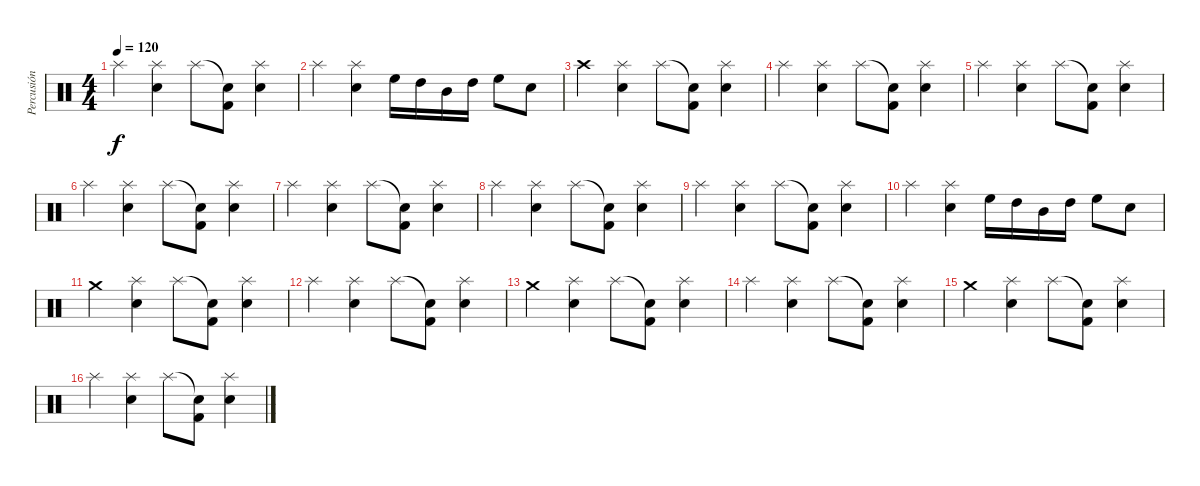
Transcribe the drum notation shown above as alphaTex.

\track ("Percusión" "Percusión") {instrument percussion}
\staff {score}
\articulation defaults
\ts (4 4)
\tempo 120
\clef neutral
\ks c "Splash (hit)".4{dy f}
("Splash (hit)" "Snare (hit) 2").4 "Splash (hit)".8 ("Snare (hit)"{t} "Kick (hit) 2").8 ("Splash (hit)" "Snare (hit) 2").4 |
"Splash (hit)".4 ("Splash (hit)" "Snare (hit) 2").4 "High Floor Tom (hit)".16 "High Tom (hit)".16 "Mid Tom (hit)".16 "High Tom (hit)".16 "High Floor Tom (hit)".8 "Snare (hit) 2".8 |
"Crash high (hit)".4 ("Splash (hit)" "Snare (hit) 2").4 "Splash (hit)".8 ("Snare (hit)"{t} "Kick (hit) 2").8 ("Splash (hit)" "Snare (hit) 2").4 |
"Splash (hit)".4 ("Splash (hit)" "Snare (hit) 2").4 "Splash (hit)".8 ("Snare (hit)"{t} "Kick (hit) 2").8 ("Splash (hit)" "Snare (hit) 2").4 |
"Splash (hit)".4 ("Splash (hit)" "Snare (hit) 2").4 "Splash (hit)".8 ("Snare (hit)"{t} "Kick (hit) 2").8 ("Splash (hit)" "Snare (hit) 2").4 |
"Splash (hit)".4 ("Splash (hit)" "Snare (hit) 2").4 "Splash (hit)".8 ("Snare (hit)"{t} "Kick (hit) 2").8 ("Splash (hit)" "Snare (hit) 2").4 |
"Splash (hit)".4 ("Splash (hit)" "Snare (hit) 2").4 "Splash (hit)".8 ("Snare (hit)"{t} "Kick (hit) 2").8 ("Splash (hit)" "Snare (hit) 2").4 |
"Splash (hit)".4 ("Splash (hit)" "Snare (hit) 2").4 "Splash (hit)".8 ("Snare (hit)"{t} "Kick (hit) 2").8 ("Splash (hit)" "Snare (hit) 2").4 |
"Splash (hit)".4 ("Splash (hit)" "Snare (hit) 2").4 "Splash (hit)".8 ("Snare (hit)"{t} "Kick (hit) 2").8 ("Splash (hit)" "Snare (hit) 2").4 |
"Splash (hit)".4 ("Splash (hit)" "Snare (hit) 2").4 "High Floor Tom (hit)".16 "High Tom (hit)".16 "Mid Tom (hit)".16 "High Tom (hit)".16 "High Floor Tom (hit)".8 "Snare (hit) 2".8 |
"Crash medium (hit)".4 ("Splash (hit)" "Snare (hit) 2").4 "Splash (hit)".8 ("Snare (hit)"{t} "Kick (hit) 2").8 ("Splash (hit)" "Snare (hit) 2").4 |
"Splash (hit)".4 ("Splash (hit)" "Snare (hit) 2").4 "Splash (hit)".8 ("Snare (hit)"{t} "Kick (hit) 2").8 ("Splash (hit)" "Snare (hit) 2").4 |
"Crash medium (hit)".4 ("Splash (hit)" "Snare (hit) 2").4 "Splash (hit)".8 ("Snare (hit)"{t} "Kick (hit) 2").8 ("Splash (hit)" "Snare (hit) 2").4 |
"Splash (hit)".4 ("Splash (hit)" "Snare (hit) 2").4 "Splash (hit)".8 ("Snare (hit)"{t} "Kick (hit) 2").8 ("Splash (hit)" "Snare (hit) 2").4 |
"Crash medium (hit)".4 ("Splash (hit)" "Snare (hit) 2").4 "Splash (hit)".8 ("Snare (hit)"{t} "Kick (hit) 2").8 ("Splash (hit)" "Snare (hit) 2").4 |
"Splash (hit)".4 ("Splash (hit)" "Snare (hit) 2").4 "Splash (hit)".8 ("Snare (hit)"{t} "Kick (hit) 2").8 ("Splash (hit)" "Snare (hit) 2").4
